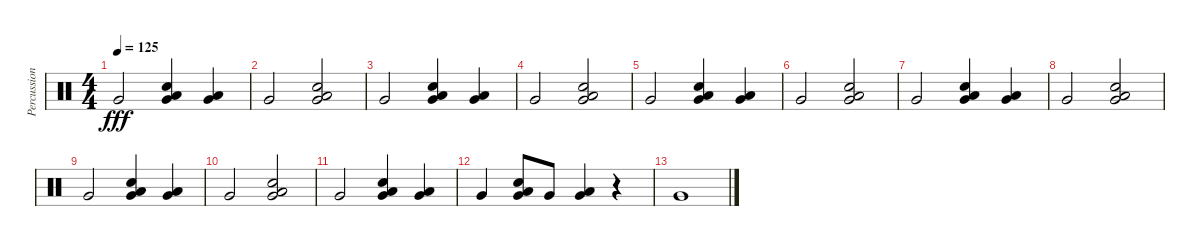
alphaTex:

\track ("Percussion" "Percussion") {instrument percussion}
\staff {score}
\articulation defaults
\ts (4 4)
\tempo 125
\clef neutral
\ks c "Very Low Tom (hit)".2{dy fff}
("Very Low Tom (hit)" "Snare (hit) 2" "Low Floor Tom (hit)").4 ("Very Low Tom (hit)" "Low Floor Tom (hit)").4 |
"Very Low Tom (hit)".2 ("Very Low Tom (hit)" "Snare (hit) 2" "Low Floor Tom (hit)").2 |
"Very Low Tom (hit)".2 ("Very Low Tom (hit)" "Snare (hit) 2" "Low Floor Tom (hit)").4 ("Very Low Tom (hit)" "Low Floor Tom (hit)").4 |
"Very Low Tom (hit)".2 ("Very Low Tom (hit)" "Snare (hit) 2" "Low Floor Tom (hit)").2 |
"Very Low Tom (hit)".2 ("Very Low Tom (hit)" "Snare (hit) 2" "Low Floor Tom (hit)").4 ("Very Low Tom (hit)" "Low Floor Tom (hit)").4 |
"Very Low Tom (hit)".2 ("Very Low Tom (hit)" "Snare (hit) 2" "Low Floor Tom (hit)").2 |
"Very Low Tom (hit)".2 ("Very Low Tom (hit)" "Snare (hit) 2" "Low Floor Tom (hit)").4 ("Very Low Tom (hit)" "Low Floor Tom (hit)").4 |
"Very Low Tom (hit)".2 ("Very Low Tom (hit)" "Snare (hit) 2" "Low Floor Tom (hit)").2 |
"Very Low Tom (hit)".2 ("Very Low Tom (hit)" "Snare (hit) 2" "Low Floor Tom (hit)").4 ("Very Low Tom (hit)" "Low Floor Tom (hit)").4 |
"Very Low Tom (hit)".2 ("Very Low Tom (hit)" "Snare (hit) 2" "Low Floor Tom (hit)").2 |
"Very Low Tom (hit)".2 ("Very Low Tom (hit)" "Snare (hit) 2" "Low Floor Tom (hit)").4 ("Very Low Tom (hit)" "Low Floor Tom (hit)").4 |
"Very Low Tom (hit)".4 ("Very Low Tom (hit)" "Snare (hit) 2" "Low Floor Tom (hit)").8 "Very Low Tom (hit)".8 ("Very Low Tom (hit)" "Low Floor Tom (hit)").4 r.4 |
"Very Low Tom (hit)".1
